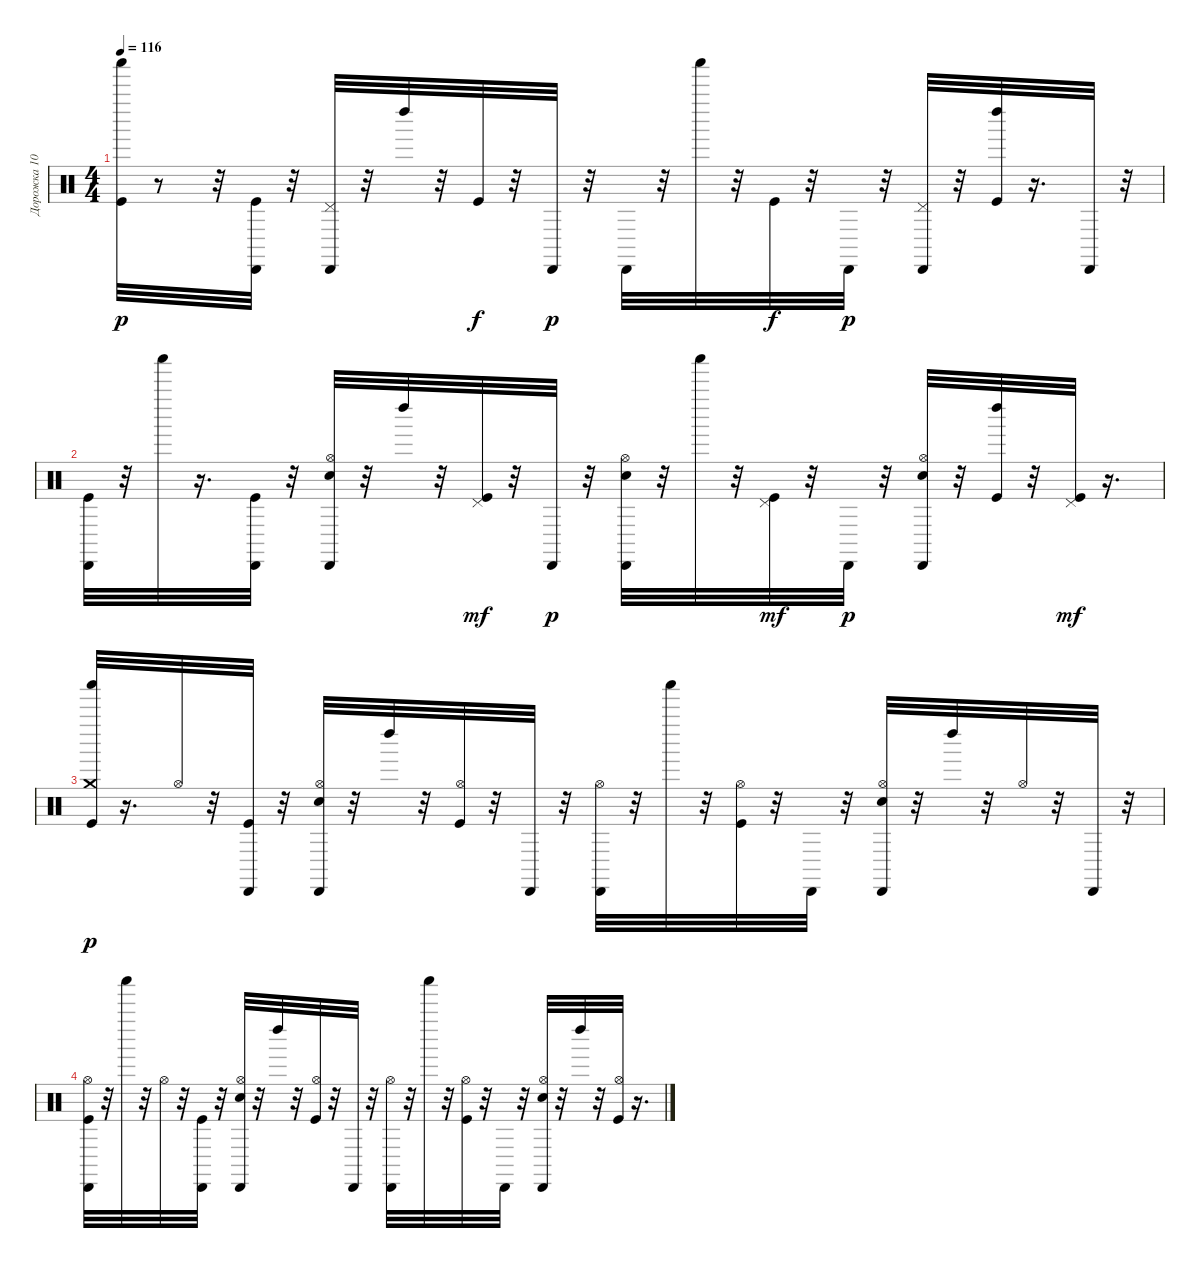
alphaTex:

\track ("Дорожка 10" "Дорожка 10") {instrument percussion}
\staff {score}
\articulation defaults
\ts (4 4)
\tempo 116
\clef neutral
\ks c
("Kick (hit)" "Shaker (hit)").32{dy p} r.8 r.32 ("Kick (hit)" "Cabasa (hit)").32 r.32 ("Pedal Hi-Hat (hit)" "Cabasa (hit)").32 r.32 "Left Maraca (hit)".32 r.32 "Kick (hit)".32{dy f} r.32 "Cabasa (hit)".32{dy p} r.32 "Cabasa (hit)".32 r.32 "Shaker (hit)".32 r.32 "Kick (hit)".32{dy f} r.32 "Cabasa (hit)".32{dy p} r.32 ("Pedal Hi-Hat (hit)" "Cabasa (hit)").32 r.32 ("Kick (hit)" "Left Maraca (hit)").32 r.16{d} "Cabasa (hit)".32 r.32 |
("Kick (hit)" "Cabasa (hit)").32 r.32 "Shaker (hit)".32 r.16{d} ("Kick (hit)" "Cabasa (hit)").32 r.32 ("Electric Snare (hit)" "Hi-Hat (open)" "Cabasa (hit)").32 r.32 "Left Maraca (hit)".32 r.32 ("Kick (hit)" "Pedal Hi-Hat (hit)").32{dy mf} r.32 "Cabasa (hit)".32{dy p} r.32 ("Hi-Hat (open)" "Electric Snare (hit)" "Cabasa (hit)").32 r.32 "Shaker (hit)".32 r.32 ("Kick (hit)" "Pedal Hi-Hat (hit)").32{dy mf} r.32 "Cabasa (hit)".32{dy p} r.32 ("Hi-Hat (open)" "Electric Snare (hit)" "Cabasa (hit)").32 r.32 ("Kick (hit)" "Left Maraca (hit)").32 r.32 ("Pedal Hi-Hat (hit)" "Kick (hit)").32{dy mf} r.16{d} |
("Kick (hit)" "Crash medium (hit)" "Shaker (hit)").32{dy p} r.16{d} "Hi-Hat (open)".32 r.32 ("Kick (hit)" "Cabasa (hit)").32 r.32 ("Electric Snare (hit)" "Hi-Hat (open)" "Cabasa (hit)").32 r.32 "Left Maraca (hit)".32 r.32 ("Kick (hit)" "Hi-Hat (open)").32 r.32 "Cabasa (hit)".32 r.32 ("Hi-Hat (open)" "Cabasa (hit)").32 r.32 "Shaker (hit)".32 r.32 ("Kick (hit)" "Hi-Hat (open)").32 r.32 "Cabasa (hit)".32 r.32 ("Electric Snare (hit)" "Hi-Hat (open)" "Cabasa (hit)").32 r.32 "Left Maraca (hit)".32 r.32 "Hi-Hat (open)".32 r.32 "Cabasa (hit)".32 r.32 |
("Kick (hit)" "Hi-Hat (open)" "Cabasa (hit)").32 r.32 "Shaker (hit)".32 r.32 "Hi-Hat (open)".32 r.32 ("Kick (hit)" "Cabasa (hit)").32 r.32 ("Electric Snare (hit)" "Hi-Hat (open)" "Cabasa (hit)").32 r.32 "Left Maraca (hit)".32 r.32 ("Kick (hit)" "Hi-Hat (open)").32 r.32 "Cabasa (hit)".32 r.32 ("Hi-Hat (open)" "Cabasa (hit)").32 r.32 "Shaker (hit)".32 r.32 ("Hi-Hat (open)" "Kick (hit)").32 r.32 "Cabasa (hit)".32 r.32 ("Electric Snare (hit)" "Hi-Hat (open)" "Cabasa (hit)").32 r.32 "Left Maraca (hit)".32 r.32 ("Hi-Hat (open)" "Kick (hit)").32 r.16{d}
